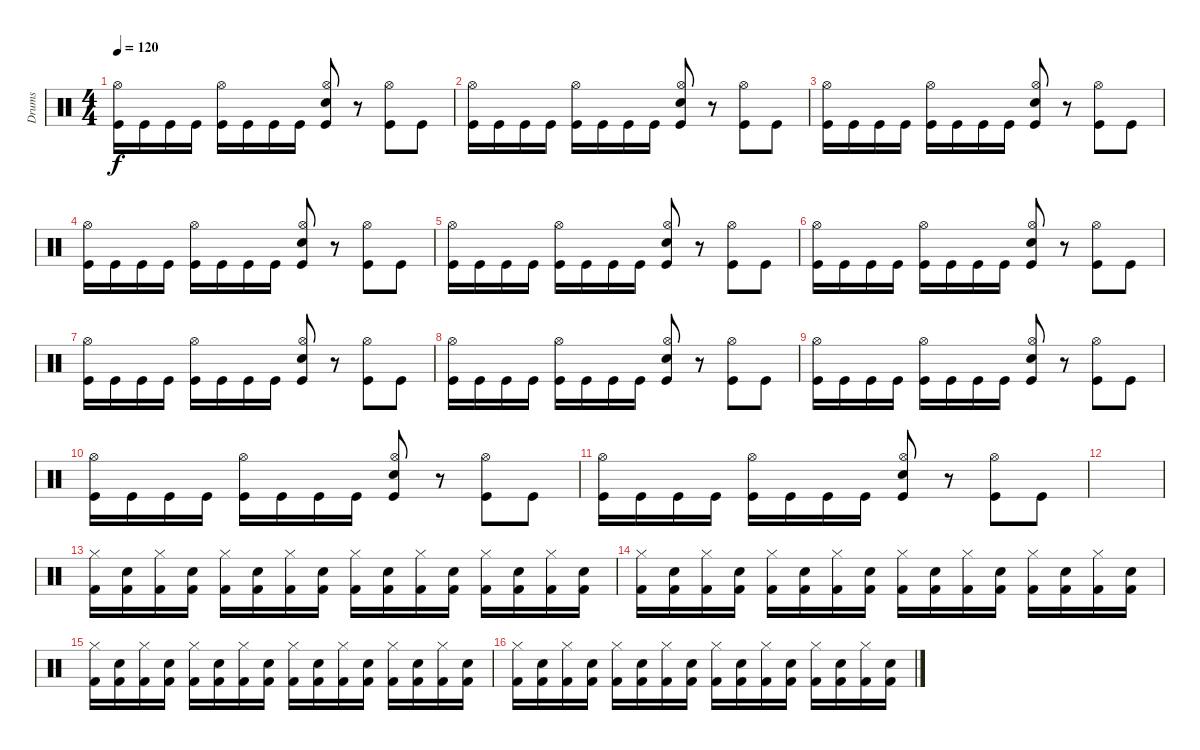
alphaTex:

\track ("Drums" "Drums") {instrument percussion}
\staff {score}
\articulation defaults
\ts (4 4)
\tempo 120
\clef neutral
\ks c
("Kick (hit)" "Hi-Hat (open)").16{dy f} "Kick (hit)".16 "Kick (hit)".16 "Kick (hit)".16 ("Kick (hit)" "Hi-Hat (open)").16 "Kick (hit)".16 "Kick (hit)".16 "Kick (hit)".16 ("Kick (hit)" "Hi-Hat (open)" "Snare (hit) 2").8 r.8 ("Kick (hit)" "Hi-Hat (open)").8 "Kick (hit)".8 |
("Kick (hit)" "Hi-Hat (open)").16 "Kick (hit)".16 "Kick (hit)".16 "Kick (hit)".16 ("Kick (hit)" "Hi-Hat (open)").16 "Kick (hit)".16 "Kick (hit)".16 "Kick (hit)".16 ("Kick (hit)" "Hi-Hat (open)" "Snare (hit) 2").8 r.8 ("Kick (hit)" "Hi-Hat (open)").8 "Kick (hit)".8 |
("Kick (hit)" "Hi-Hat (open)").16 "Kick (hit)".16 "Kick (hit)".16 "Kick (hit)".16 ("Kick (hit)" "Hi-Hat (open)").16 "Kick (hit)".16 "Kick (hit)".16 "Kick (hit)".16 ("Kick (hit)" "Hi-Hat (open)" "Snare (hit) 2").8 r.8 ("Kick (hit)" "Hi-Hat (open)").8 "Kick (hit)".8 |
("Kick (hit)" "Hi-Hat (open)").16 "Kick (hit)".16 "Kick (hit)".16 "Kick (hit)".16 ("Kick (hit)" "Hi-Hat (open)").16 "Kick (hit)".16 "Kick (hit)".16 "Kick (hit)".16 ("Kick (hit)" "Hi-Hat (open)" "Snare (hit) 2").8 r.8 ("Kick (hit)" "Hi-Hat (open)").8 "Kick (hit)".8 |
("Kick (hit)" "Hi-Hat (open)").16 "Kick (hit)".16 "Kick (hit)".16 "Kick (hit)".16 ("Kick (hit)" "Hi-Hat (open)").16 "Kick (hit)".16 "Kick (hit)".16 "Kick (hit)".16 ("Kick (hit)" "Hi-Hat (open)" "Snare (hit) 2").8 r.8 ("Kick (hit)" "Hi-Hat (open)").8 "Kick (hit)".8 |
("Kick (hit)" "Hi-Hat (open)").16 "Kick (hit)".16 "Kick (hit)".16 "Kick (hit)".16 ("Kick (hit)" "Hi-Hat (open)").16 "Kick (hit)".16 "Kick (hit)".16 "Kick (hit)".16 ("Kick (hit)" "Hi-Hat (open)" "Snare (hit) 2").8 r.8 ("Kick (hit)" "Hi-Hat (open)").8 "Kick (hit)".8 |
("Kick (hit)" "Hi-Hat (open)").16 "Kick (hit)".16 "Kick (hit)".16 "Kick (hit)".16 ("Kick (hit)" "Hi-Hat (open)").16 "Kick (hit)".16 "Kick (hit)".16 "Kick (hit)".16 ("Kick (hit)" "Hi-Hat (open)" "Snare (hit) 2").8 r.8 ("Kick (hit)" "Hi-Hat (open)").8 "Kick (hit)".8 |
("Kick (hit)" "Hi-Hat (open)").16 "Kick (hit)".16 "Kick (hit)".16 "Kick (hit)".16 ("Kick (hit)" "Hi-Hat (open)").16 "Kick (hit)".16 "Kick (hit)".16 "Kick (hit)".16 ("Kick (hit)" "Hi-Hat (open)" "Snare (hit) 2").8 r.8 ("Kick (hit)" "Hi-Hat (open)").8 "Kick (hit)".8 |
("Kick (hit)" "Hi-Hat (open)").16 "Kick (hit)".16 "Kick (hit)".16 "Kick (hit)".16 ("Kick (hit)" "Hi-Hat (open)").16 "Kick (hit)".16 "Kick (hit)".16 "Kick (hit)".16 ("Kick (hit)" "Hi-Hat (open)" "Snare (hit) 2").8 r.8 ("Kick (hit)" "Hi-Hat (open)").8 "Kick (hit)".8 |
("Kick (hit)" "Hi-Hat (open)").16 "Kick (hit)".16 "Kick (hit)".16 "Kick (hit)".16 ("Kick (hit)" "Hi-Hat (open)").16 "Kick (hit)".16 "Kick (hit)".16 "Kick (hit)".16 ("Kick (hit)" "Hi-Hat (open)" "Snare (hit) 2").8 r.8 ("Kick (hit)" "Hi-Hat (open)").8 "Kick (hit)".8 |
("Kick (hit)" "Hi-Hat (open)").16 "Kick (hit)".16 "Kick (hit)".16 "Kick (hit)".16 ("Kick (hit)" "Hi-Hat (open)").16 "Kick (hit)".16 "Kick (hit)".16 "Kick (hit)".16 ("Kick (hit)" "Hi-Hat (open)" "Snare (hit) 2").8 r.8 ("Kick (hit)" "Hi-Hat (open)").8 "Kick (hit)".8 |
|
("Kick (hit) 2" "Hi-Hat (closed)").16 ("Kick (hit) 2" "Snare (hit) 2").16 ("Kick (hit) 2" "Hi-Hat (closed)").16 ("Kick (hit) 2" "Snare (hit) 2").16 ("Kick (hit) 2" "Hi-Hat (closed)").16 ("Kick (hit) 2" "Snare (hit) 2").16 ("Kick (hit) 2" "Hi-Hat (closed)").16 ("Kick (hit) 2" "Snare (hit) 2").16 ("Kick (hit) 2" "Hi-Hat (closed)").16 ("Kick (hit) 2" "Snare (hit) 2").16 ("Kick (hit) 2" "Hi-Hat (closed)").16 ("Kick (hit) 2" "Snare (hit) 2").16 ("Kick (hit) 2" "Hi-Hat (closed)").16 ("Kick (hit) 2" "Snare (hit) 2").16 ("Kick (hit) 2" "Hi-Hat (closed)").16 ("Kick (hit) 2" "Snare (hit) 2").16 |
("Kick (hit) 2" "Hi-Hat (closed)").16 ("Kick (hit) 2" "Snare (hit) 2").16 ("Kick (hit) 2" "Hi-Hat (closed)").16 ("Kick (hit) 2" "Snare (hit) 2").16 ("Kick (hit) 2" "Hi-Hat (closed)").16 ("Kick (hit) 2" "Snare (hit) 2").16 ("Kick (hit) 2" "Hi-Hat (closed)").16 ("Kick (hit) 2" "Snare (hit) 2").16 ("Kick (hit) 2" "Hi-Hat (closed)").16 ("Kick (hit) 2" "Snare (hit) 2").16 ("Kick (hit) 2" "Hi-Hat (closed)").16 ("Kick (hit) 2" "Snare (hit) 2").16 ("Kick (hit) 2" "Hi-Hat (closed)").16 ("Kick (hit) 2" "Snare (hit) 2").16 ("Kick (hit) 2" "Hi-Hat (closed)").16 ("Kick (hit) 2" "Snare (hit) 2").16 |
("Kick (hit) 2" "Hi-Hat (closed)").16 ("Kick (hit) 2" "Snare (hit) 2").16 ("Kick (hit) 2" "Hi-Hat (closed)").16 ("Kick (hit) 2" "Snare (hit) 2").16 ("Kick (hit) 2" "Hi-Hat (closed)").16 ("Kick (hit) 2" "Snare (hit) 2").16 ("Kick (hit) 2" "Hi-Hat (closed)").16 ("Kick (hit) 2" "Snare (hit) 2").16 ("Kick (hit) 2" "Hi-Hat (closed)").16 ("Kick (hit) 2" "Snare (hit) 2").16 ("Kick (hit) 2" "Hi-Hat (closed)").16 ("Kick (hit) 2" "Snare (hit) 2").16 ("Kick (hit) 2" "Hi-Hat (closed)").16 ("Kick (hit) 2" "Snare (hit) 2").16 ("Kick (hit) 2" "Hi-Hat (closed)").16 ("Kick (hit) 2" "Snare (hit) 2").16 |
("Kick (hit) 2" "Hi-Hat (closed)").16 ("Kick (hit) 2" "Snare (hit) 2").16 ("Kick (hit) 2" "Hi-Hat (closed)").16 ("Kick (hit) 2" "Snare (hit) 2").16 ("Kick (hit) 2" "Hi-Hat (closed)").16 ("Kick (hit) 2" "Snare (hit) 2").16 ("Kick (hit) 2" "Hi-Hat (closed)").16 ("Kick (hit) 2" "Snare (hit) 2").16 ("Kick (hit) 2" "Hi-Hat (closed)").16 ("Kick (hit) 2" "Snare (hit) 2").16 ("Kick (hit) 2" "Hi-Hat (closed)").16 ("Kick (hit) 2" "Snare (hit) 2").16 ("Kick (hit) 2" "Hi-Hat (closed)").16 ("Kick (hit) 2" "Snare (hit) 2").16 ("Kick (hit) 2" "Hi-Hat (closed)").16 ("Kick (hit) 2" "Snare (hit) 2").16
